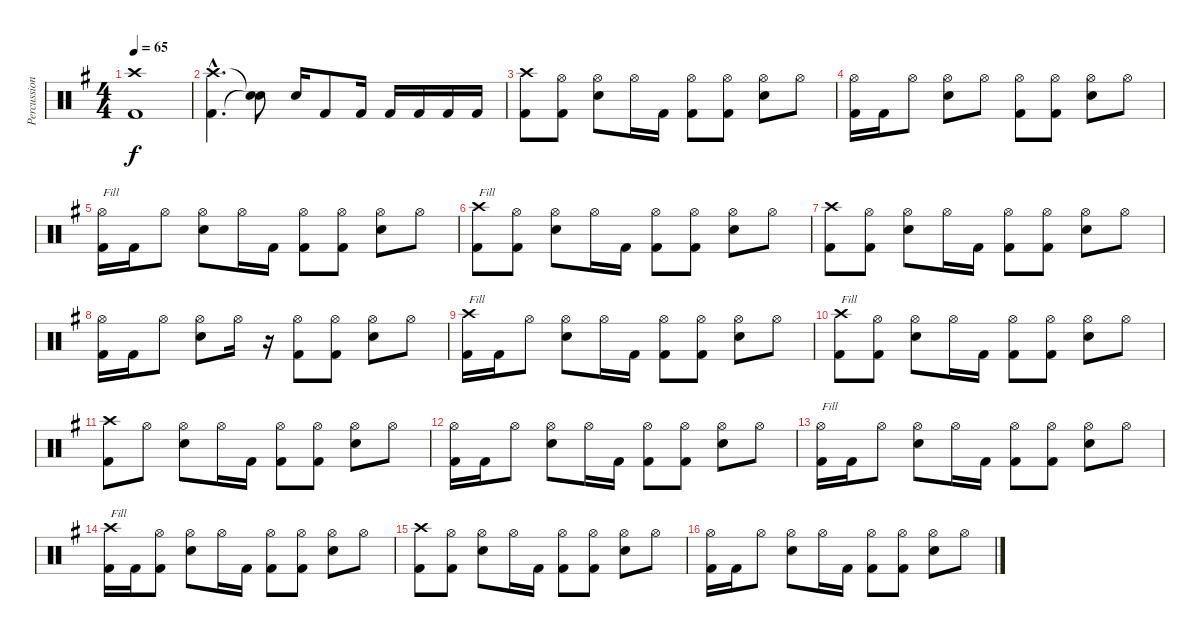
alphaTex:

\track ("Percussion" "Percussion") {instrument percussion}
\staff {score}
\articulation defaults
\ts (4 4)
\tempo 65
\clef neutral
\ks eminor
("Crash high (hit)" "Kick (hit) 2").1{dy f} |
("Crash high (hit)"{hac} "Kick (hit) 2"{hac}).4{d} ("Snare (hit)"{t} "Snare (hit)"{t}).8 "Snare (hit) 2".16 "Kick (hit) 2".8 "Kick (hit) 2".16 "Kick (hit) 2".16 "Kick (hit) 2".16 "Kick (hit) 2".16 "Kick (hit) 2".16 |
("Crash high (hit)" "Kick (hit) 2").8 ("Hi-Hat (open)" "Kick (hit) 2").8 ("Hi-Hat (open)" "Snare (hit) 2").8 "Hi-Hat (open)".16 "Kick (hit) 2".16 ("Hi-Hat (open)" "Kick (hit) 2").8 ("Hi-Hat (open)" "Kick (hit) 2").8 ("Hi-Hat (open)" "Snare (hit) 2").8 "Hi-Hat (open)".8 |
("Hi-Hat (open)" "Kick (hit) 2").16 "Kick (hit) 2".16 "Hi-Hat (open)".8 ("Hi-Hat (open)" "Snare (hit) 2").8 "Hi-Hat (open)".8 ("Hi-Hat (open)" "Kick (hit) 2").8 ("Hi-Hat (open)" "Kick (hit) 2").8 ("Hi-Hat (open)" "Snare (hit) 2").8 "Hi-Hat (open)".8 |
("Hi-Hat (open)" "Kick (hit) 2").16{txt "Fill"} "Kick (hit) 2".16 "Hi-Hat (open)".8 ("Hi-Hat (open)" "Snare (hit) 2").8 "Hi-Hat (open)".16 "Kick (hit) 2".16 ("Hi-Hat (open)" "Kick (hit) 2").8 ("Hi-Hat (open)" "Kick (hit) 2").8 ("Hi-Hat (open)" "Snare (hit) 2").8 "Hi-Hat (open)".8 |
("Crash high (hit)" "Kick (hit) 2").8{txt "Fill"} ("Hi-Hat (open)" "Kick (hit) 2").8 ("Hi-Hat (open)" "Snare (hit) 2").8 "Hi-Hat (open)".16 "Kick (hit) 2".16 ("Hi-Hat (open)" "Kick (hit) 2").8 ("Hi-Hat (open)" "Kick (hit) 2").8 ("Hi-Hat (open)" "Snare (hit) 2").8 "Hi-Hat (open)".8 |
("Crash high (hit)" "Kick (hit) 2").8 ("Hi-Hat (open)" "Kick (hit) 2").8 ("Hi-Hat (open)" "Snare (hit) 2").8 "Hi-Hat (open)".16 "Kick (hit) 2".16 ("Hi-Hat (open)" "Kick (hit) 2").8 ("Hi-Hat (open)" "Kick (hit) 2").8 ("Hi-Hat (open)" "Snare (hit) 2").8 "Hi-Hat (open)".8 |
("Hi-Hat (open)" "Kick (hit) 2").16 "Kick (hit) 2".16 "Hi-Hat (open)".8 ("Hi-Hat (open)" "Snare (hit) 2").8 "Hi-Hat (open)".16 r.16 ("Hi-Hat (open)" "Kick (hit) 2").8 ("Hi-Hat (open)" "Kick (hit) 2").8 ("Hi-Hat (open)" "Snare (hit) 2").8 "Hi-Hat (open)".8 |
("Crash high (hit)" "Kick (hit) 2").16{txt "Fill"} "Kick (hit) 2".16 "Hi-Hat (open)".8 ("Hi-Hat (open)" "Snare (hit) 2").8 "Hi-Hat (open)".16 "Kick (hit) 2".16 ("Hi-Hat (open)" "Kick (hit) 2").8 ("Hi-Hat (open)" "Kick (hit) 2").8 ("Hi-Hat (open)" "Snare (hit) 2").8 "Hi-Hat (open)".8 |
("Crash high (hit)" "Kick (hit) 2").8{txt "Fill"} ("Hi-Hat (open)" "Kick (hit) 2").8 ("Hi-Hat (open)" "Snare (hit) 2").8 "Hi-Hat (open)".16 "Kick (hit) 2".16 ("Hi-Hat (open)" "Kick (hit) 2").8 ("Hi-Hat (open)" "Kick (hit) 2").8 ("Hi-Hat (open)" "Snare (hit) 2").8 "Hi-Hat (open)".8 |
("Crash high (hit)" "Kick (hit) 2").8 "Hi-Hat (open)".8 ("Hi-Hat (open)" "Snare (hit) 2").8 "Hi-Hat (open)".16 "Kick (hit) 2".16 ("Hi-Hat (open)" "Kick (hit) 2").8 ("Hi-Hat (open)" "Kick (hit) 2").8 ("Hi-Hat (open)" "Snare (hit) 2").8 "Hi-Hat (open)".8 |
("Hi-Hat (open)" "Kick (hit) 2").16 "Kick (hit) 2".16 "Hi-Hat (open)".8 ("Hi-Hat (open)" "Snare (hit) 2").8 "Hi-Hat (open)".16 "Kick (hit) 2".16 ("Hi-Hat (open)" "Kick (hit) 2").8 ("Hi-Hat (open)" "Kick (hit) 2").8 ("Hi-Hat (open)" "Snare (hit) 2").8 "Hi-Hat (open)".8 |
("Hi-Hat (open)" "Kick (hit) 2").16{txt "Fill"} "Kick (hit) 2".16 "Hi-Hat (open)".8 ("Hi-Hat (open)" "Snare (hit) 2").8 "Hi-Hat (open)".16 "Kick (hit) 2".16 ("Hi-Hat (open)" "Kick (hit) 2").8 ("Hi-Hat (open)" "Kick (hit) 2").8 ("Hi-Hat (open)" "Snare (hit) 2").8 "Hi-Hat (open)".8 |
("Crash high (hit)" "Kick (hit) 2").16{txt "Fill"} "Kick (hit) 2".16 ("Hi-Hat (open)" "Kick (hit) 2").8 ("Hi-Hat (open)" "Snare (hit) 2").8 "Hi-Hat (open)".16 "Kick (hit) 2".16 ("Hi-Hat (open)" "Kick (hit) 2").8 ("Hi-Hat (open)" "Kick (hit) 2").8 ("Hi-Hat (open)" "Snare (hit) 2").8 "Hi-Hat (open)".8 |
("Crash high (hit)" "Kick (hit) 2").8 ("Hi-Hat (open)" "Kick (hit) 2").8 ("Hi-Hat (open)" "Snare (hit) 2").8 "Hi-Hat (open)".16 "Kick (hit) 2".16 ("Hi-Hat (open)" "Kick (hit) 2").8 ("Hi-Hat (open)" "Kick (hit) 2").8 ("Hi-Hat (open)" "Snare (hit) 2").8 "Hi-Hat (open)".8 |
("Hi-Hat (open)" "Kick (hit) 2").16 "Kick (hit) 2".16 "Hi-Hat (open)".8 ("Hi-Hat (open)" "Snare (hit) 2").8 "Hi-Hat (open)".16 "Kick (hit) 2".16 ("Hi-Hat (open)" "Kick (hit) 2").8 ("Hi-Hat (open)" "Kick (hit) 2").8 ("Hi-Hat (open)" "Snare (hit) 2").8 "Hi-Hat (open)".8
